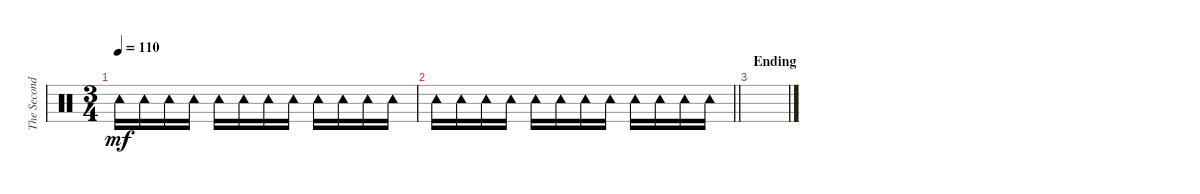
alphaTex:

\track ("The Second Drummer" "The Second") {instrument percussion}
\staff {score}
\articulation defaults
\ts (3 4)
\tempo 110
\clef neutral
\ks c "Tambourine (hit)".16{dy mf} "Tambourine (hit)".16 "Tambourine (hit)".16 "Tambourine (hit)".16 "Tambourine (hit)".16 "Tambourine (hit)".16 "Tambourine (hit)".16 "Tambourine (hit)".16 "Tambourine (hit)".16 "Tambourine (hit)".16 "Tambourine (hit)".16 "Tambourine (hit)".16
|
\barLineRight lightlight "Tambourine (hit)".16 "Tambourine (hit)".16 "Tambourine (hit)".16 "Tambourine (hit)".16 "Tambourine (hit)".16 "Tambourine (hit)".16 "Tambourine (hit)".16 "Tambourine (hit)".16 "Tambourine (hit)".16 "Tambourine (hit)".16 "Tambourine (hit)".16 "Tambourine (hit)".16
|
\section ("" "Ending")
